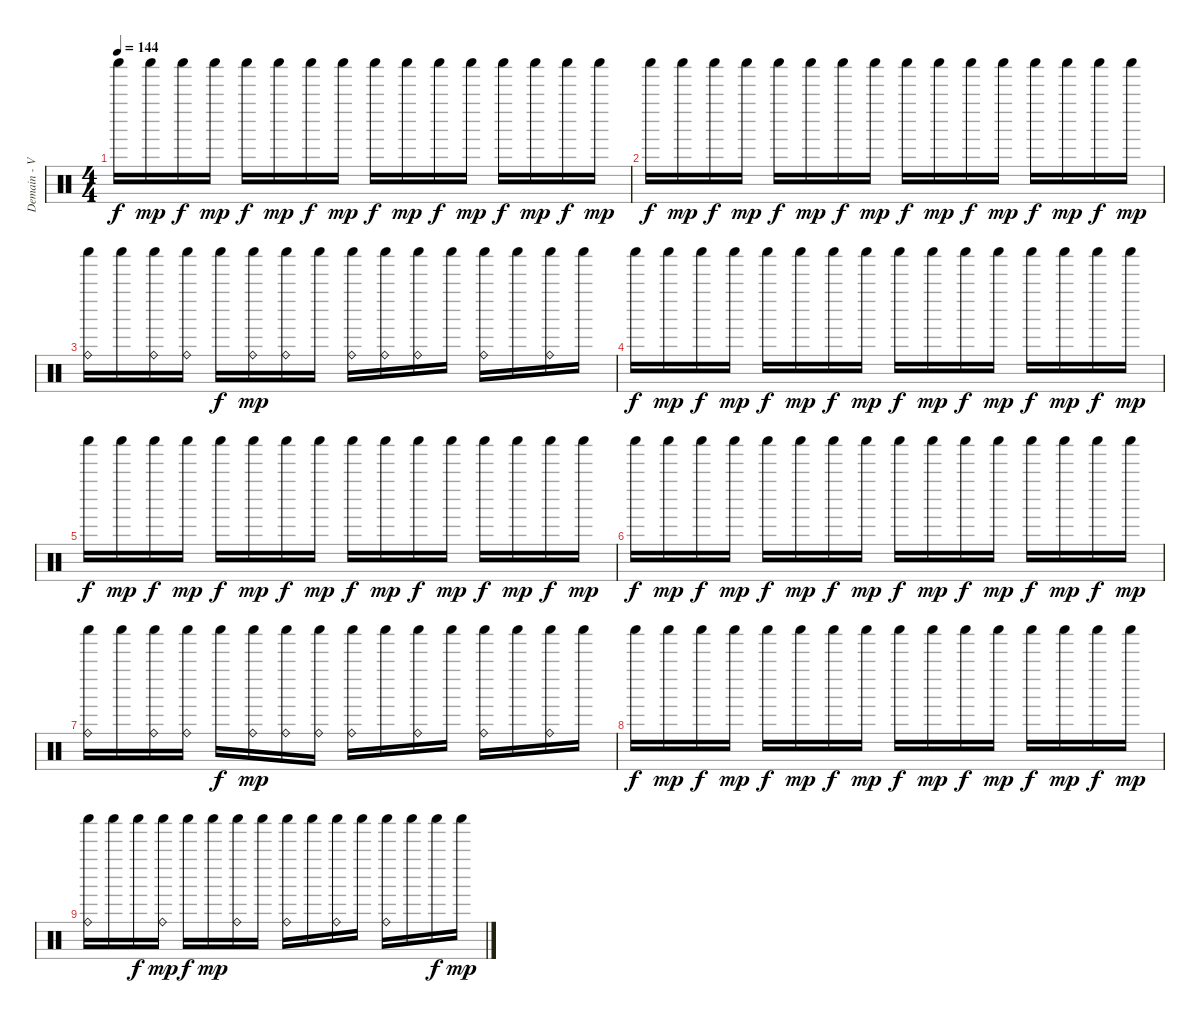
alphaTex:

\track ("Demain - Various Perc." "Demain - V") {instrument percussion}
\staff {score}
\articulation defaults
\ts (4 4)
\tempo 144
\clef neutral
\ks c "Shaker (hit)".16{dy f} "Shaker (hit)".16{dy mp} "Shaker (hit)".16{dy f} "Shaker (hit)".16{dy mp} "Shaker (hit)".16{dy f} "Shaker (hit)".16{dy mp} "Shaker (hit)".16{dy f} "Shaker (hit)".16{dy mp} "Shaker (hit)".16{dy f} "Shaker (hit)".16{dy mp} "Shaker (hit)".16{dy f} "Shaker (hit)".16{dy mp} "Shaker (hit)".16{dy f} "Shaker (hit)".16{dy mp} "Shaker (hit)".16{dy f} "Shaker (hit)".16{dy mp}
|
"Shaker (hit)".16{dy f} "Shaker (hit)".16{dy mp} "Shaker (hit)".16{dy f} "Shaker (hit)".16{dy mp} "Shaker (hit)".16{dy f} "Shaker (hit)".16{dy mp} "Shaker (hit)".16{dy f} "Shaker (hit)".16{dy mp} "Shaker (hit)".16{dy f} "Shaker (hit)".16{dy mp} "Shaker (hit)".16{dy f} "Shaker (hit)".16{dy mp} "Shaker (hit)".16{dy f} "Shaker (hit)".16{dy mp} "Shaker (hit)".16{dy f} "Shaker (hit)".16{dy mp} |
("Shaker (hit)" "Ride (bell)").16 "Shaker (hit)".16 ("Shaker (hit)" "Ride (bell)").16 ("Shaker (hit)" "Ride (bell)").16 "Shaker (hit)".16{dy f} ("Shaker (hit)" "Ride (bell)").16{dy mp} ("Shaker (hit)" "Ride (bell)").16 "Shaker (hit)".16 ("Shaker (hit)" "Ride (bell)").16 ("Shaker (hit)" "Ride (bell)").16 ("Shaker (hit)" "Ride (bell)").16 "Shaker (hit)".16 ("Shaker (hit)" "Ride (bell)").16 "Shaker (hit)".16 ("Shaker (hit)" "Ride (bell)").16 "Shaker (hit)".16 |
"Shaker (hit)".16{dy f} "Shaker (hit)".16{dy mp} "Shaker (hit)".16{dy f} "Shaker (hit)".16{dy mp} "Shaker (hit)".16{dy f} "Shaker (hit)".16{dy mp} "Shaker (hit)".16{dy f} "Shaker (hit)".16{dy mp} "Shaker (hit)".16{dy f} "Shaker (hit)".16{dy mp} "Shaker (hit)".16{dy f} "Shaker (hit)".16{dy mp} "Shaker (hit)".16{dy f} "Shaker (hit)".16{dy mp} "Shaker (hit)".16{dy f} "Shaker (hit)".16{dy mp} |
"Shaker (hit)".16{dy f} "Shaker (hit)".16{dy mp} "Shaker (hit)".16{dy f} "Shaker (hit)".16{dy mp} "Shaker (hit)".16{dy f} "Shaker (hit)".16{dy mp} "Shaker (hit)".16{dy f} "Shaker (hit)".16{dy mp} "Shaker (hit)".16{dy f} "Shaker (hit)".16{dy mp} "Shaker (hit)".16{dy f} "Shaker (hit)".16{dy mp} "Shaker (hit)".16{dy f} "Shaker (hit)".16{dy mp} "Shaker (hit)".16{dy f} "Shaker (hit)".16{dy mp} |
"Shaker (hit)".16{dy f} "Shaker (hit)".16{dy mp} "Shaker (hit)".16{dy f} "Shaker (hit)".16{dy mp} "Shaker (hit)".16{dy f} "Shaker (hit)".16{dy mp} "Shaker (hit)".16{dy f} "Shaker (hit)".16{dy mp} "Shaker (hit)".16{dy f} "Shaker (hit)".16{dy mp} "Shaker (hit)".16{dy f} "Shaker (hit)".16{dy mp} "Shaker (hit)".16{dy f} "Shaker (hit)".16{dy mp} "Shaker (hit)".16{dy f} "Shaker (hit)".16{dy mp} |
("Shaker (hit)" "Ride (bell)").16 "Shaker (hit)".16 ("Shaker (hit)" "Ride (bell)").16 ("Shaker (hit)" "Ride (bell)").16 "Shaker (hit)".16{dy f} ("Shaker (hit)" "Ride (bell)").16{dy mp} ("Shaker (hit)" "Ride (bell)").16 ("Shaker (hit)" "Ride (bell)").16 ("Shaker (hit)" "Ride (bell)").16 "Shaker (hit)".16 ("Shaker (hit)" "Ride (bell)").16 "Shaker (hit)".16 ("Shaker (hit)" "Ride (bell)").16 "Shaker (hit)".16 ("Shaker (hit)" "Ride (bell)").16 "Shaker (hit)".16 |
"Shaker (hit)".16{dy f} "Shaker (hit)".16{dy mp} "Shaker (hit)".16{dy f} "Shaker (hit)".16{dy mp} "Shaker (hit)".16{dy f} "Shaker (hit)".16{dy mp} "Shaker (hit)".16{dy f} "Shaker (hit)".16{dy mp} "Shaker (hit)".16{dy f} "Shaker (hit)".16{dy mp} "Shaker (hit)".16{dy f} "Shaker (hit)".16{dy mp} "Shaker (hit)".16{dy f} "Shaker (hit)".16{dy mp} "Shaker (hit)".16{dy f} "Shaker (hit)".16{dy mp} |
("Shaker (hit)" "Ride (bell)").16 "Shaker (hit)".16 "Shaker (hit)".16{dy f} ("Shaker (hit)" "Ride (bell)").16{dy mp} "Shaker (hit)".16{dy f} "Shaker (hit)".16{dy mp} ("Shaker (hit)" "Ride (bell)").16 "Shaker (hit)".16 ("Shaker (hit)" "Ride (bell)").16 "Shaker (hit)".16 ("Shaker (hit)" "Ride (bell)").16 "Shaker (hit)".16 ("Shaker (hit)" "Ride (bell)").16 "Shaker (hit)".16 "Shaker (hit)".16{dy f} "Shaker (hit)".16{dy mp}
